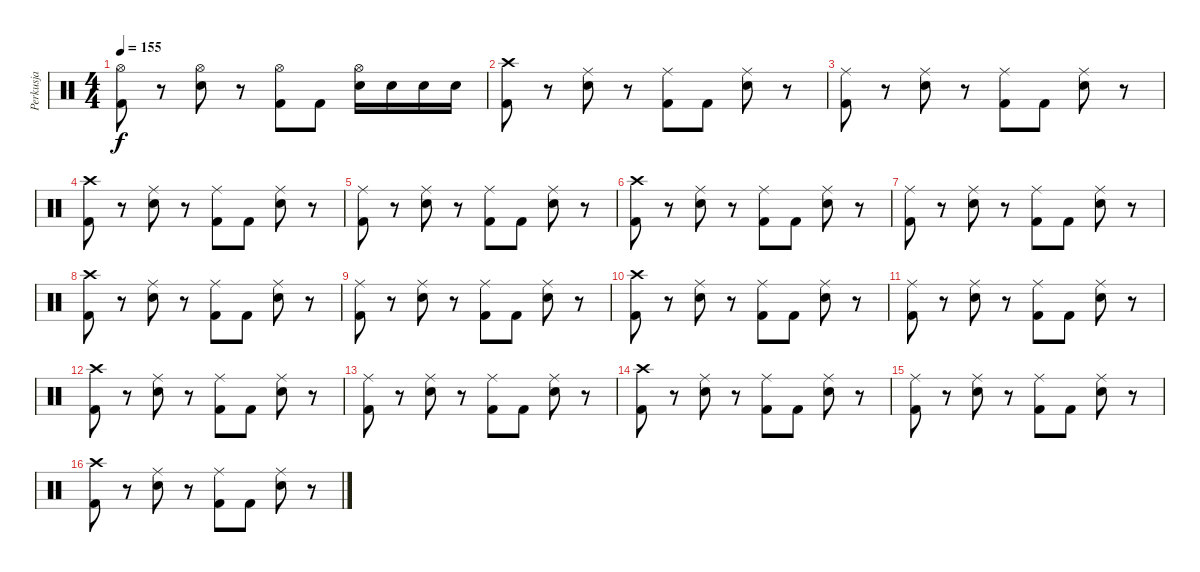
\track ("Perkusja" "Perkusja") {instrument percussion}
\staff {score}
\articulation defaults
\ts (4 4)
\tempo 155
\clef neutral
\ks c
("Hi-Hat (open)" "Kick (hit) 2").8{dy f} r.8 ("Hi-Hat (open)" "Electric Snare (hit)").8 r.8 ("Hi-Hat (open)" "Kick (hit) 2").8 "Kick (hit) 2".8 ("Hi-Hat (open)" "Electric Snare (hit)").16 "Electric Snare (hit)".16 "Electric Snare (hit)".16 "Electric Snare (hit)".16 |
("Crash high (hit)" "Kick (hit) 2").8 r.8 ("Ride (middle)" "Electric Snare (hit)").8 r.8 ("Ride (middle)" "Kick (hit) 2").8 "Kick (hit) 2".8 ("Ride (middle)" "Electric Snare (hit)").8 r.8 |
("Ride (middle)" "Kick (hit) 2").8 r.8 ("Ride (middle)" "Electric Snare (hit)").8 r.8 ("Ride (middle)" "Kick (hit) 2").8 "Kick (hit) 2".8 ("Ride (middle)" "Electric Snare (hit)").8 r.8 |
("Crash high (hit)" "Kick (hit) 2").8 r.8 ("Ride (middle)" "Electric Snare (hit)").8 r.8 ("Ride (middle)" "Kick (hit) 2").8 "Kick (hit) 2".8 ("Ride (middle)" "Electric Snare (hit)").8 r.8 |
("Ride (middle)" "Kick (hit) 2").8 r.8 ("Ride (middle)" "Electric Snare (hit)").8 r.8 ("Ride (middle)" "Kick (hit) 2").8 "Kick (hit) 2".8 ("Ride (middle)" "Electric Snare (hit)").8 r.8 |
("Crash high (hit)" "Kick (hit) 2").8 r.8 ("Ride (middle)" "Electric Snare (hit)").8 r.8 ("Ride (middle)" "Kick (hit) 2").8 "Kick (hit) 2".8 ("Ride (middle)" "Electric Snare (hit)").8 r.8 |
("Ride (middle)" "Kick (hit) 2").8 r.8 ("Ride (middle)" "Electric Snare (hit)").8 r.8 ("Ride (middle)" "Kick (hit) 2").8 "Kick (hit) 2".8 ("Ride (middle)" "Electric Snare (hit)").8 r.8 |
("Crash high (hit)" "Kick (hit) 2").8 r.8 ("Ride (middle)" "Electric Snare (hit)").8 r.8 ("Ride (middle)" "Kick (hit) 2").8 "Kick (hit) 2".8 ("Ride (middle)" "Electric Snare (hit)").8 r.8 |
("Ride (middle)" "Kick (hit) 2").8 r.8 ("Ride (middle)" "Electric Snare (hit)").8 r.8 ("Ride (middle)" "Kick (hit) 2").8 "Kick (hit) 2".8 ("Ride (middle)" "Electric Snare (hit)").8 r.8 |
("Crash high (hit)" "Kick (hit) 2").8 r.8 ("Ride (middle)" "Electric Snare (hit)").8 r.8 ("Ride (middle)" "Kick (hit) 2").8 "Kick (hit) 2".8 ("Ride (middle)" "Electric Snare (hit)").8 r.8 |
("Ride (middle)" "Kick (hit) 2").8 r.8 ("Ride (middle)" "Electric Snare (hit)").8 r.8 ("Ride (middle)" "Kick (hit) 2").8 "Kick (hit) 2".8 ("Ride (middle)" "Electric Snare (hit)").8 r.8 |
("Crash high (hit)" "Kick (hit) 2").8 r.8 ("Ride (middle)" "Electric Snare (hit)").8 r.8 ("Ride (middle)" "Kick (hit) 2").8 "Kick (hit) 2".8 ("Ride (middle)" "Electric Snare (hit)").8 r.8 |
("Ride (middle)" "Kick (hit) 2").8 r.8 ("Ride (middle)" "Electric Snare (hit)").8 r.8 ("Ride (middle)" "Kick (hit) 2").8 "Kick (hit) 2".8 ("Ride (middle)" "Electric Snare (hit)").8 r.8 |
("Crash high (hit)" "Kick (hit) 2").8 r.8 ("Ride (middle)" "Electric Snare (hit)").8 r.8 ("Ride (middle)" "Kick (hit) 2").8 "Kick (hit) 2".8 ("Ride (middle)" "Electric Snare (hit)").8 r.8 |
("Ride (middle)" "Kick (hit) 2").8 r.8 ("Ride (middle)" "Electric Snare (hit)").8 r.8 ("Ride (middle)" "Kick (hit) 2").8 "Kick (hit) 2".8 ("Ride (middle)" "Electric Snare (hit)").8 r.8 |
("Crash high (hit)" "Kick (hit) 2").8 r.8 ("Ride (middle)" "Electric Snare (hit)").8 r.8 ("Ride (middle)" "Kick (hit) 2").8 "Kick (hit) 2".8 ("Ride (middle)" "Electric Snare (hit)").8 r.8
